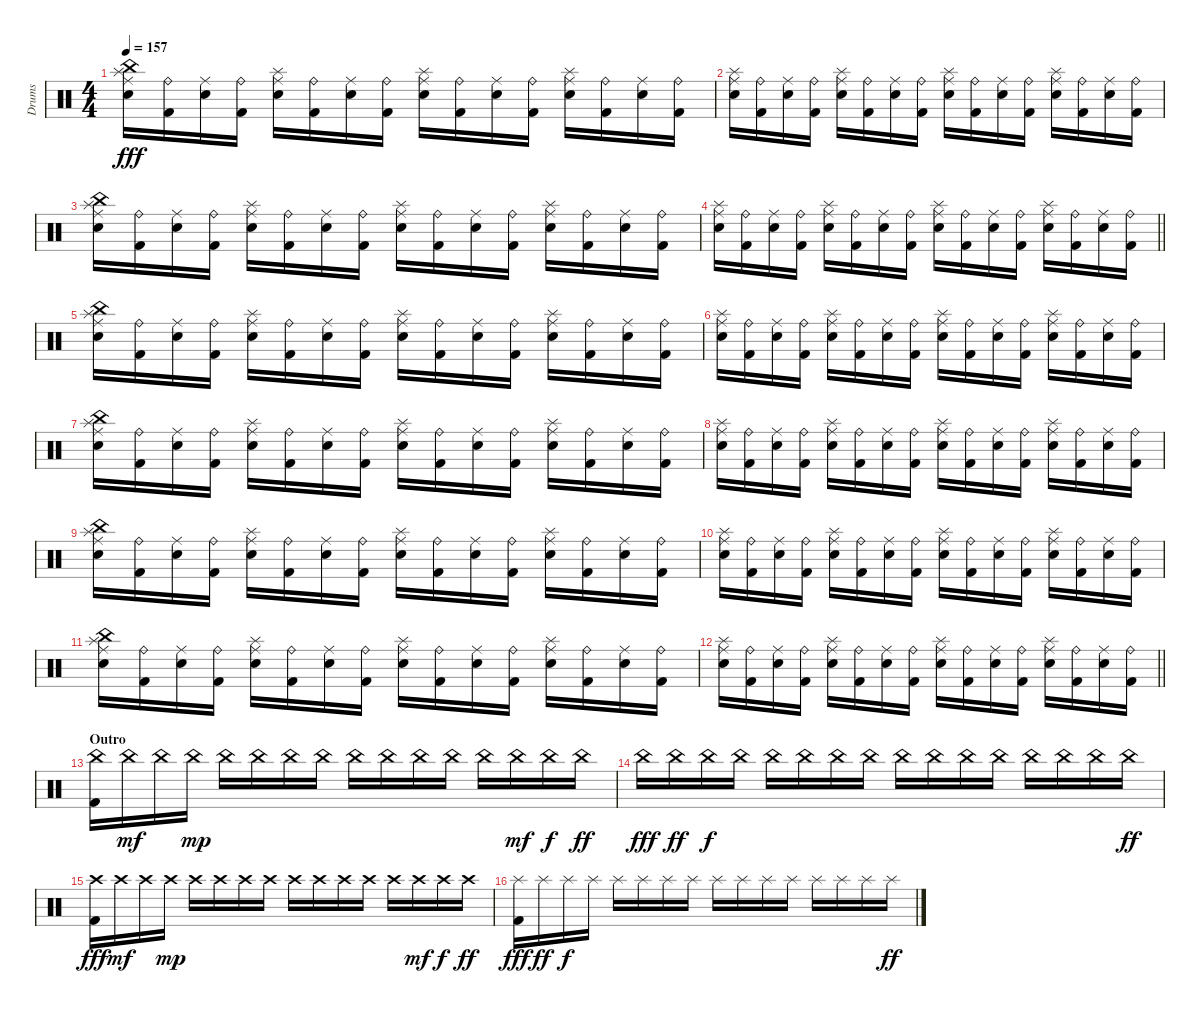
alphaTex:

\track ("Drums" "Drums") {instrument percussion}
\staff {score}
\articulation defaults
\ts (4 4)
\tempo 157
\clef neutral
\ks c
("Snare (hit) 2" "Ride (middle)" "China (hit)" "Splash (hit)").16{dy fff} ("Kick (hit) 2" "Ride (bell)").16 ("Snare (hit) 2" "Ride (middle)").16 ("Kick (hit) 2" "Ride (bell)").16 ("Snare (hit) 2" "Ride (middle)" "Splash (hit)").16 ("Kick (hit) 2" "Ride (bell)").16 ("Snare (hit) 2" "Ride (middle)").16 ("Kick (hit) 2" "Ride (bell)").16 ("Snare (hit) 2" "Ride (middle)" "Splash (hit)").16 ("Kick (hit) 2" "Ride (bell)").16 ("Snare (hit) 2" "Ride (middle)").16 ("Kick (hit) 2" "Ride (bell)").16 ("Snare (hit) 2" "Ride (middle)" "Splash (hit)").16 ("Kick (hit) 2" "Ride (bell)").16 ("Snare (hit) 2" "Ride (middle)").16 ("Kick (hit) 2" "Ride (bell)").16 |
("Snare (hit) 2" "Ride (middle)" "Splash (hit)").16 ("Kick (hit) 2" "Ride (bell)").16 ("Snare (hit) 2" "Ride (middle)").16 ("Kick (hit) 2" "Ride (bell)").16 ("Snare (hit) 2" "Ride (middle)" "Splash (hit)").16 ("Kick (hit) 2" "Ride (bell)").16 ("Snare (hit) 2" "Ride (middle)").16 ("Kick (hit) 2" "Ride (bell)").16 ("Snare (hit) 2" "Ride (middle)" "Splash (hit)").16 ("Kick (hit) 2" "Ride (bell)").16 ("Snare (hit) 2" "Ride (middle)").16 ("Kick (hit) 2" "Ride (bell)").16 ("Snare (hit) 2" "Ride (middle)" "Splash (hit)").16 ("Kick (hit) 2" "Ride (bell)").16 ("Snare (hit) 2" "Ride (middle)").16 ("Kick (hit) 2" "Ride (bell)").16 |
("Snare (hit) 2" "Ride (middle)" "China (hit)" "Splash (hit)").16 ("Kick (hit) 2" "Ride (bell)").16 ("Snare (hit) 2" "Ride (middle)").16 ("Kick (hit) 2" "Ride (bell)").16 ("Snare (hit) 2" "Ride (middle)" "Splash (hit)").16 ("Kick (hit) 2" "Ride (bell)").16 ("Snare (hit) 2" "Ride (middle)").16 ("Kick (hit) 2" "Ride (bell)").16 ("Snare (hit) 2" "Ride (middle)" "Splash (hit)").16 ("Kick (hit) 2" "Ride (bell)").16 ("Snare (hit) 2" "Ride (middle)").16 ("Kick (hit) 2" "Ride (bell)").16 ("Snare (hit) 2" "Ride (middle)" "Splash (hit)").16 ("Kick (hit) 2" "Ride (bell)").16 ("Snare (hit) 2" "Ride (middle)").16 ("Kick (hit) 2" "Ride (bell)").16 |
\barLineRight lightlight
("Snare (hit) 2" "Ride (middle)" "Splash (hit)").16 ("Kick (hit) 2" "Ride (bell)").16 ("Snare (hit) 2" "Ride (middle)").16 ("Kick (hit) 2" "Ride (bell)").16 ("Snare (hit) 2" "Ride (middle)" "Splash (hit)").16 ("Kick (hit) 2" "Ride (bell)").16 ("Snare (hit) 2" "Ride (middle)").16 ("Kick (hit) 2" "Ride (bell)").16 ("Snare (hit) 2" "Ride (middle)" "Splash (hit)").16 ("Kick (hit) 2" "Ride (bell)").16 ("Snare (hit) 2" "Ride (middle)").16 ("Kick (hit) 2" "Ride (bell)").16 ("Snare (hit) 2" "Ride (middle)" "Splash (hit)").16 ("Kick (hit) 2" "Ride (bell)").16 ("Snare (hit) 2" "Ride (middle)").16 ("Kick (hit) 2" "Ride (bell)").16 |
("Snare (hit) 2" "Ride (middle)" "China (hit)" "Splash (hit)").16 ("Kick (hit) 2" "Ride (bell)").16 ("Snare (hit) 2" "Ride (middle)").16 ("Kick (hit) 2" "Ride (bell)").16 ("Snare (hit) 2" "Ride (middle)" "Splash (hit)").16 ("Kick (hit) 2" "Ride (bell)").16 ("Snare (hit) 2" "Ride (middle)").16 ("Kick (hit) 2" "Ride (bell)").16 ("Snare (hit) 2" "Ride (middle)" "Splash (hit)").16 ("Kick (hit) 2" "Ride (bell)").16 ("Snare (hit) 2" "Ride (middle)").16 ("Kick (hit) 2" "Ride (bell)").16 ("Snare (hit) 2" "Ride (middle)" "Splash (hit)").16 ("Kick (hit) 2" "Ride (bell)").16 ("Snare (hit) 2" "Ride (middle)").16 ("Kick (hit) 2" "Ride (bell)").16 |
("Snare (hit) 2" "Ride (middle)" "Splash (hit)").16 ("Kick (hit) 2" "Ride (bell)").16 ("Snare (hit) 2" "Ride (middle)").16 ("Kick (hit) 2" "Ride (bell)").16 ("Snare (hit) 2" "Ride (middle)" "Splash (hit)").16 ("Kick (hit) 2" "Ride (bell)").16 ("Snare (hit) 2" "Ride (middle)").16 ("Kick (hit) 2" "Ride (bell)").16 ("Snare (hit) 2" "Ride (middle)" "Splash (hit)").16 ("Kick (hit) 2" "Ride (bell)").16 ("Snare (hit) 2" "Ride (middle)").16 ("Kick (hit) 2" "Ride (bell)").16 ("Snare (hit) 2" "Ride (middle)" "Splash (hit)").16 ("Kick (hit) 2" "Ride (bell)").16 ("Snare (hit) 2" "Ride (middle)").16 ("Kick (hit) 2" "Ride (bell)").16 |
("Snare (hit) 2" "Ride (middle)" "China (hit)" "Splash (hit)").16 ("Kick (hit) 2" "Ride (bell)").16 ("Snare (hit) 2" "Ride (middle)").16 ("Kick (hit) 2" "Ride (bell)").16 ("Snare (hit) 2" "Ride (middle)" "Splash (hit)").16 ("Kick (hit) 2" "Ride (bell)").16 ("Snare (hit) 2" "Ride (middle)").16 ("Kick (hit) 2" "Ride (bell)").16 ("Snare (hit) 2" "Ride (middle)" "Splash (hit)").16 ("Kick (hit) 2" "Ride (bell)").16 ("Snare (hit) 2" "Ride (middle)").16 ("Kick (hit) 2" "Ride (bell)").16 ("Snare (hit) 2" "Ride (middle)" "Splash (hit)").16 ("Kick (hit) 2" "Ride (bell)").16 ("Snare (hit) 2" "Ride (middle)").16 ("Kick (hit) 2" "Ride (bell)").16 |
("Snare (hit) 2" "Ride (middle)" "Splash (hit)").16 ("Kick (hit) 2" "Ride (bell)").16 ("Snare (hit) 2" "Ride (middle)").16 ("Kick (hit) 2" "Ride (bell)").16 ("Snare (hit) 2" "Ride (middle)" "Splash (hit)").16 ("Kick (hit) 2" "Ride (bell)").16 ("Snare (hit) 2" "Ride (middle)").16 ("Kick (hit) 2" "Ride (bell)").16 ("Snare (hit) 2" "Ride (middle)" "Splash (hit)").16 ("Kick (hit) 2" "Ride (bell)").16 ("Snare (hit) 2" "Ride (middle)").16 ("Kick (hit) 2" "Ride (bell)").16 ("Snare (hit) 2" "Ride (middle)" "Splash (hit)").16 ("Kick (hit) 2" "Ride (bell)").16 ("Snare (hit) 2" "Ride (middle)").16 ("Kick (hit) 2" "Ride (bell)").16 |
("Snare (hit) 2" "Ride (middle)" "China (hit)" "Splash (hit)").16 ("Kick (hit) 2" "Ride (bell)").16 ("Snare (hit) 2" "Ride (middle)").16 ("Kick (hit) 2" "Ride (bell)").16 ("Snare (hit) 2" "Ride (middle)" "Splash (hit)").16 ("Kick (hit) 2" "Ride (bell)").16 ("Snare (hit) 2" "Ride (middle)").16 ("Kick (hit) 2" "Ride (bell)").16 ("Snare (hit) 2" "Ride (middle)" "Splash (hit)").16 ("Kick (hit) 2" "Ride (bell)").16 ("Snare (hit) 2" "Ride (middle)").16 ("Kick (hit) 2" "Ride (bell)").16 ("Snare (hit) 2" "Ride (middle)" "Splash (hit)").16 ("Kick (hit) 2" "Ride (bell)").16 ("Snare (hit) 2" "Ride (middle)").16 ("Kick (hit) 2" "Ride (bell)").16 |
("Snare (hit) 2" "Ride (middle)" "Splash (hit)").16 ("Kick (hit) 2" "Ride (bell)").16 ("Snare (hit) 2" "Ride (middle)").16 ("Kick (hit) 2" "Ride (bell)").16 ("Snare (hit) 2" "Ride (middle)" "Splash (hit)").16 ("Kick (hit) 2" "Ride (bell)").16 ("Snare (hit) 2" "Ride (middle)").16 ("Kick (hit) 2" "Ride (bell)").16 ("Snare (hit) 2" "Ride (middle)" "Splash (hit)").16 ("Kick (hit) 2" "Ride (bell)").16 ("Snare (hit) 2" "Ride (middle)").16 ("Kick (hit) 2" "Ride (bell)").16 ("Snare (hit) 2" "Ride (middle)" "Splash (hit)").16 ("Kick (hit) 2" "Ride (bell)").16 ("Snare (hit) 2" "Ride (middle)").16 ("Kick (hit) 2" "Ride (bell)").16 |
("Snare (hit) 2" "Ride (middle)" "China (hit)" "Splash (hit)").16 ("Kick (hit) 2" "Ride (bell)").16 ("Snare (hit) 2" "Ride (middle)").16 ("Kick (hit) 2" "Ride (bell)").16 ("Snare (hit) 2" "Ride (middle)" "Splash (hit)").16 ("Kick (hit) 2" "Ride (bell)").16 ("Snare (hit) 2" "Ride (middle)").16 ("Kick (hit) 2" "Ride (bell)").16 ("Snare (hit) 2" "Ride (middle)" "Splash (hit)").16 ("Kick (hit) 2" "Ride (bell)").16 ("Snare (hit) 2" "Ride (middle)").16 ("Kick (hit) 2" "Ride (bell)").16 ("Snare (hit) 2" "Ride (middle)" "Splash (hit)").16 ("Kick (hit) 2" "Ride (bell)").16 ("Snare (hit) 2" "Ride (middle)").16 ("Kick (hit) 2" "Ride (bell)").16 |
\barLineRight lightlight
("Snare (hit) 2" "Ride (middle)" "Splash (hit)").16 ("Kick (hit) 2" "Ride (bell)").16 ("Snare (hit) 2" "Ride (middle)").16 ("Kick (hit) 2" "Ride (bell)").16 ("Snare (hit) 2" "Ride (middle)" "Splash (hit)").16 ("Kick (hit) 2" "Ride (bell)").16 ("Snare (hit) 2" "Ride (middle)").16 ("Kick (hit) 2" "Ride (bell)").16 ("Snare (hit) 2" "Ride (middle)" "Splash (hit)").16 ("Kick (hit) 2" "Ride (bell)").16 ("Snare (hit) 2" "Ride (middle)").16 ("Kick (hit) 2" "Ride (bell)").16 ("Snare (hit) 2" "Ride (middle)" "Splash (hit)").16 ("Kick (hit) 2" "Ride (bell)").16 ("Snare (hit) 2" "Ride (middle)").16 ("Kick (hit) 2" "Ride (bell)").16 |
\section ("" "Outro")
("Kick (hit) 2" "China (hit)").16 "China (hit)".16{dy mf} "China (hit)".16 "China (hit)".16{dy mp} "China (hit)".16 "China (hit)".16 "China (hit)".16 "China (hit)".16 "China (hit)".16 "China (hit)".16 "China (hit)".16 "China (hit)".16 "China (hit)".16 "China (hit)".16{dy mf} "China (hit)".16{dy f} "China (hit)".16{dy ff} |
"China (hit)".16{dy fff} "China (hit)".16{dy ff} "China (hit)".16{dy f} "China (hit)".16 "China (hit)".16 "China (hit)".16 "China (hit)".16 "China (hit)".16 "China (hit)".16 "China (hit)".16 "China (hit)".16 "China (hit)".16 "China (hit)".16 "China (hit)".16 "China (hit)".16 "China (hit)".16{dy ff} |
("Kick (hit) 2" "Crash high (hit)").16{dy fff} "Crash high (hit)".16{dy mf} "Crash high (hit)".16 "Crash high (hit)".16{dy mp} "Crash high (hit)".16 "Crash high (hit)".16 "Crash high (hit)".16 "Crash high (hit)".16 "Crash high (hit)".16 "Crash high (hit)".16 "Crash high (hit)".16 "Crash high (hit)".16 "Crash high (hit)".16 "Crash high (hit)".16{dy mf} "Crash high (hit)".16{dy f} "Crash high (hit)".16{dy ff} |
("Kick (hit) 2" "Splash (hit)").16{dy fff} "Splash (hit)".16{dy ff} "Splash (hit)".16{dy f} "Splash (hit)".16 "Splash (hit)".16 "Splash (hit)".16 "Splash (hit)".16 "Splash (hit)".16 "Splash (hit)".16 "Splash (hit)".16 "Splash (hit)".16 "Splash (hit)".16 "Splash (hit)".16 "Splash (hit)".16 "Splash (hit)".16 "Splash (hit)".16{dy ff}
